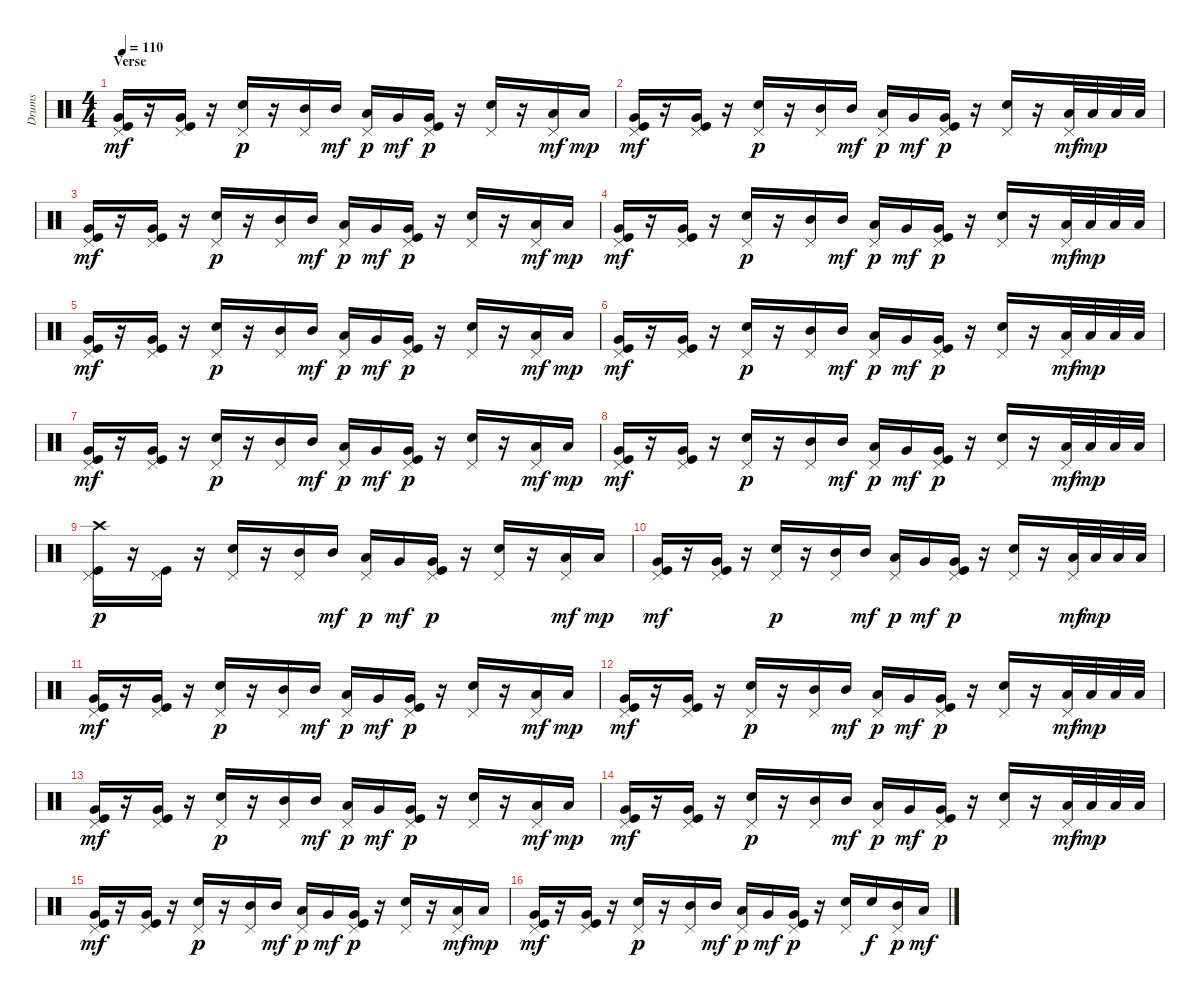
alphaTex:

\track ("Drums" "Drums") {instrument percussion}
\staff {score}
\articulation defaults
\ts (4 4)
\section ("" "Verse")
\tempo 110
\clef neutral
\ks c
("Pedal Hi-Hat (hit)" "Very Low Tom (hit)" "Kick (hit)").16{dy mf} r.16 ("Pedal Hi-Hat (hit)" "Very Low Tom (hit)" "Kick (hit)").16 r.16 ("Pedal Hi-Hat (hit)" "Snare (hit) 2").16{dy p} r.16 ("Pedal Hi-Hat (hit)" "Mid Tom (hit)").16 "Mid Tom (hit)".16{dy mf} ("Pedal Hi-Hat (hit)" "Low Tom (hit)").16{dy p} "Very Low Tom (hit)".16{dy mf} ("Pedal Hi-Hat (hit)" "Very Low Tom (hit)" "Kick (hit)").16{dy p} r.16 ("Pedal Hi-Hat (hit)" "Snare (hit) 2").16 r.16 ("Pedal Hi-Hat (hit)" "Low Tom (hit)").16{dy mf} "Low Tom (hit)".16{dy mp} |
("Pedal Hi-Hat (hit)" "Very Low Tom (hit)" "Kick (hit)").16{dy mf} r.16 ("Pedal Hi-Hat (hit)" "Very Low Tom (hit)" "Kick (hit)").16 r.16 ("Pedal Hi-Hat (hit)" "Snare (hit) 2").16{dy p} r.16 ("Pedal Hi-Hat (hit)" "Mid Tom (hit)").16 "Mid Tom (hit)".16{dy mf} ("Pedal Hi-Hat (hit)" "Low Tom (hit)").16{dy p} "Very Low Tom (hit)".16{dy mf} ("Pedal Hi-Hat (hit)" "Very Low Tom (hit)" "Kick (hit)").16{dy p} r.16 ("Pedal Hi-Hat (hit)" "Snare (hit) 2").16 r.16 ("Pedal Hi-Hat (hit)" "Low Tom (hit)").32{dy mf} "Low Tom (hit)".32{dy mp} "Low Tom (hit)".32 "Low Tom (hit)".32 |
("Pedal Hi-Hat (hit)" "Very Low Tom (hit)" "Kick (hit)").16{dy mf} r.16 ("Pedal Hi-Hat (hit)" "Very Low Tom (hit)" "Kick (hit)").16 r.16 ("Pedal Hi-Hat (hit)" "Snare (hit) 2").16{dy p} r.16 ("Pedal Hi-Hat (hit)" "Mid Tom (hit)").16 "Mid Tom (hit)".16{dy mf} ("Pedal Hi-Hat (hit)" "Low Tom (hit)").16{dy p} "Very Low Tom (hit)".16{dy mf} ("Pedal Hi-Hat (hit)" "Very Low Tom (hit)" "Kick (hit)").16{dy p} r.16 ("Pedal Hi-Hat (hit)" "Snare (hit) 2").16 r.16 ("Pedal Hi-Hat (hit)" "Low Tom (hit)").16{dy mf} "Low Tom (hit)".16{dy mp} |
("Pedal Hi-Hat (hit)" "Very Low Tom (hit)" "Kick (hit)").16{dy mf} r.16 ("Pedal Hi-Hat (hit)" "Very Low Tom (hit)" "Kick (hit)").16 r.16 ("Pedal Hi-Hat (hit)" "Snare (hit) 2").16{dy p} r.16 ("Pedal Hi-Hat (hit)" "Mid Tom (hit)").16 "Mid Tom (hit)".16{dy mf} ("Pedal Hi-Hat (hit)" "Low Tom (hit)").16{dy p} "Very Low Tom (hit)".16{dy mf} ("Pedal Hi-Hat (hit)" "Very Low Tom (hit)" "Kick (hit)").16{dy p} r.16 ("Pedal Hi-Hat (hit)" "Snare (hit) 2").16 r.16 ("Pedal Hi-Hat (hit)" "Low Tom (hit)").32{dy mf} "Low Tom (hit)".32{dy mp} "Low Tom (hit)".32 "Low Tom (hit)".32 |
("Pedal Hi-Hat (hit)" "Very Low Tom (hit)" "Kick (hit)").16{dy mf} r.16 ("Pedal Hi-Hat (hit)" "Very Low Tom (hit)" "Kick (hit)").16 r.16 ("Pedal Hi-Hat (hit)" "Snare (hit) 2").16{dy p} r.16 ("Pedal Hi-Hat (hit)" "Mid Tom (hit)").16 "Mid Tom (hit)".16{dy mf} ("Pedal Hi-Hat (hit)" "Low Tom (hit)").16{dy p} "Very Low Tom (hit)".16{dy mf} ("Pedal Hi-Hat (hit)" "Very Low Tom (hit)" "Kick (hit)").16{dy p} r.16 ("Pedal Hi-Hat (hit)" "Snare (hit) 2").16 r.16 ("Pedal Hi-Hat (hit)" "Low Tom (hit)").16{dy mf} "Low Tom (hit)".16{dy mp} |
("Pedal Hi-Hat (hit)" "Very Low Tom (hit)" "Kick (hit)").16{dy mf} r.16 ("Pedal Hi-Hat (hit)" "Very Low Tom (hit)" "Kick (hit)").16 r.16 ("Pedal Hi-Hat (hit)" "Snare (hit) 2").16{dy p} r.16 ("Pedal Hi-Hat (hit)" "Mid Tom (hit)").16 "Mid Tom (hit)".16{dy mf} ("Pedal Hi-Hat (hit)" "Low Tom (hit)").16{dy p} "Very Low Tom (hit)".16{dy mf} ("Pedal Hi-Hat (hit)" "Very Low Tom (hit)" "Kick (hit)").16{dy p} r.16 ("Pedal Hi-Hat (hit)" "Snare (hit) 2").16 r.16 ("Pedal Hi-Hat (hit)" "Low Tom (hit)").32{dy mf} "Low Tom (hit)".32{dy mp} "Low Tom (hit)".32 "Low Tom (hit)".32 |
("Pedal Hi-Hat (hit)" "Very Low Tom (hit)" "Kick (hit)").16{dy mf} r.16 ("Pedal Hi-Hat (hit)" "Very Low Tom (hit)" "Kick (hit)").16 r.16 ("Pedal Hi-Hat (hit)" "Snare (hit) 2").16{dy p} r.16 ("Pedal Hi-Hat (hit)" "Mid Tom (hit)").16 "Mid Tom (hit)".16{dy mf} ("Pedal Hi-Hat (hit)" "Low Tom (hit)").16{dy p} "Very Low Tom (hit)".16{dy mf} ("Pedal Hi-Hat (hit)" "Very Low Tom (hit)" "Kick (hit)").16{dy p} r.16 ("Pedal Hi-Hat (hit)" "Snare (hit) 2").16 r.16 ("Pedal Hi-Hat (hit)" "Low Tom (hit)").16{dy mf} "Low Tom (hit)".16{dy mp} |
("Pedal Hi-Hat (hit)" "Very Low Tom (hit)" "Kick (hit)").16{dy mf} r.16 ("Pedal Hi-Hat (hit)" "Very Low Tom (hit)" "Kick (hit)").16 r.16 ("Pedal Hi-Hat (hit)" "Snare (hit) 2").16{dy p} r.16 ("Pedal Hi-Hat (hit)" "Mid Tom (hit)").16 "Mid Tom (hit)".16{dy mf} ("Pedal Hi-Hat (hit)" "Low Tom (hit)").16{dy p} "Very Low Tom (hit)".16{dy mf} ("Pedal Hi-Hat (hit)" "Very Low Tom (hit)" "Kick (hit)").16{dy p} r.16 ("Pedal Hi-Hat (hit)" "Snare (hit) 2").16 r.16 ("Pedal Hi-Hat (hit)" "Low Tom (hit)").32{dy mf} "Low Tom (hit)".32{dy mp} "Low Tom (hit)".32 "Low Tom (hit)".32 |
("Crash high (hit)" "Pedal Hi-Hat (hit)" "Kick (hit)").16{dy p} r.16 ("Pedal Hi-Hat (hit)" "Kick (hit)").16 r.16 ("Pedal Hi-Hat (hit)" "Snare (hit) 2").16 r.16 ("Pedal Hi-Hat (hit)" "Mid Tom (hit)").16 "Mid Tom (hit)".16{dy mf} ("Pedal Hi-Hat (hit)" "Low Tom (hit)").16{dy p} "Very Low Tom (hit)".16{dy mf} ("Pedal Hi-Hat (hit)" "Very Low Tom (hit)" "Kick (hit)").16{dy p} r.16 ("Pedal Hi-Hat (hit)" "Snare (hit) 2").16 r.16 ("Pedal Hi-Hat (hit)" "Low Tom (hit)").16{dy mf} "Low Tom (hit)".16{dy mp} |
("Pedal Hi-Hat (hit)" "Very Low Tom (hit)" "Kick (hit)").16{dy mf} r.16 ("Pedal Hi-Hat (hit)" "Very Low Tom (hit)" "Kick (hit)").16 r.16 ("Pedal Hi-Hat (hit)" "Snare (hit) 2").16{dy p} r.16 ("Pedal Hi-Hat (hit)" "Mid Tom (hit)").16 "Mid Tom (hit)".16{dy mf} ("Pedal Hi-Hat (hit)" "Low Tom (hit)").16{dy p} "Very Low Tom (hit)".16{dy mf} ("Pedal Hi-Hat (hit)" "Very Low Tom (hit)" "Kick (hit)").16{dy p} r.16 ("Pedal Hi-Hat (hit)" "Snare (hit) 2").16 r.16 ("Pedal Hi-Hat (hit)" "Low Tom (hit)").32{dy mf} "Low Tom (hit)".32{dy mp} "Low Tom (hit)".32 "Low Tom (hit)".32 |
("Pedal Hi-Hat (hit)" "Very Low Tom (hit)" "Kick (hit)").16{dy mf} r.16 ("Pedal Hi-Hat (hit)" "Very Low Tom (hit)" "Kick (hit)").16 r.16 ("Pedal Hi-Hat (hit)" "Snare (hit) 2").16{dy p} r.16 ("Pedal Hi-Hat (hit)" "Mid Tom (hit)").16 "Mid Tom (hit)".16{dy mf} ("Pedal Hi-Hat (hit)" "Low Tom (hit)").16{dy p} "Very Low Tom (hit)".16{dy mf} ("Pedal Hi-Hat (hit)" "Very Low Tom (hit)" "Kick (hit)").16{dy p} r.16 ("Pedal Hi-Hat (hit)" "Snare (hit) 2").16 r.16 ("Pedal Hi-Hat (hit)" "Low Tom (hit)").16{dy mf} "Low Tom (hit)".16{dy mp} |
("Pedal Hi-Hat (hit)" "Very Low Tom (hit)" "Kick (hit)").16{dy mf} r.16 ("Pedal Hi-Hat (hit)" "Very Low Tom (hit)" "Kick (hit)").16 r.16 ("Pedal Hi-Hat (hit)" "Snare (hit) 2").16{dy p} r.16 ("Pedal Hi-Hat (hit)" "Mid Tom (hit)").16 "Mid Tom (hit)".16{dy mf} ("Pedal Hi-Hat (hit)" "Low Tom (hit)").16{dy p} "Very Low Tom (hit)".16{dy mf} ("Pedal Hi-Hat (hit)" "Very Low Tom (hit)" "Kick (hit)").16{dy p} r.16 ("Pedal Hi-Hat (hit)" "Snare (hit) 2").16 r.16 ("Pedal Hi-Hat (hit)" "Low Tom (hit)").32{dy mf} "Low Tom (hit)".32{dy mp} "Low Tom (hit)".32 "Low Tom (hit)".32 |
("Pedal Hi-Hat (hit)" "Very Low Tom (hit)" "Kick (hit)").16{dy mf} r.16 ("Pedal Hi-Hat (hit)" "Very Low Tom (hit)" "Kick (hit)").16 r.16 ("Pedal Hi-Hat (hit)" "Snare (hit) 2").16{dy p} r.16 ("Pedal Hi-Hat (hit)" "Mid Tom (hit)").16 "Mid Tom (hit)".16{dy mf} ("Pedal Hi-Hat (hit)" "Low Tom (hit)").16{dy p} "Very Low Tom (hit)".16{dy mf} ("Pedal Hi-Hat (hit)" "Very Low Tom (hit)" "Kick (hit)").16{dy p} r.16 ("Pedal Hi-Hat (hit)" "Snare (hit) 2").16 r.16 ("Pedal Hi-Hat (hit)" "Low Tom (hit)").16{dy mf} "Low Tom (hit)".16{dy mp} |
("Pedal Hi-Hat (hit)" "Very Low Tom (hit)" "Kick (hit)").16{dy mf} r.16 ("Pedal Hi-Hat (hit)" "Very Low Tom (hit)" "Kick (hit)").16 r.16 ("Pedal Hi-Hat (hit)" "Snare (hit) 2").16{dy p} r.16 ("Pedal Hi-Hat (hit)" "Mid Tom (hit)").16 "Mid Tom (hit)".16{dy mf} ("Pedal Hi-Hat (hit)" "Low Tom (hit)").16{dy p} "Very Low Tom (hit)".16{dy mf} ("Pedal Hi-Hat (hit)" "Very Low Tom (hit)" "Kick (hit)").16{dy p} r.16 ("Pedal Hi-Hat (hit)" "Snare (hit) 2").16 r.16 ("Pedal Hi-Hat (hit)" "Low Tom (hit)").32{dy mf} "Low Tom (hit)".32{dy mp} "Low Tom (hit)".32 "Low Tom (hit)".32 |
("Pedal Hi-Hat (hit)" "Very Low Tom (hit)" "Kick (hit)").16{dy mf} r.16 ("Pedal Hi-Hat (hit)" "Very Low Tom (hit)" "Kick (hit)").16 r.16 ("Pedal Hi-Hat (hit)" "Snare (hit) 2").16{dy p} r.16 ("Pedal Hi-Hat (hit)" "Mid Tom (hit)").16 "Mid Tom (hit)".16{dy mf} ("Pedal Hi-Hat (hit)" "Low Tom (hit)").16{dy p} "Very Low Tom (hit)".16{dy mf} ("Pedal Hi-Hat (hit)" "Very Low Tom (hit)" "Kick (hit)").16{dy p} r.16 ("Pedal Hi-Hat (hit)" "Snare (hit) 2").16 r.16 ("Pedal Hi-Hat (hit)" "Low Tom (hit)").16{dy mf} "Low Tom (hit)".16{dy mp} |
("Pedal Hi-Hat (hit)" "Very Low Tom (hit)" "Kick (hit)").16{dy mf} r.16 ("Pedal Hi-Hat (hit)" "Very Low Tom (hit)" "Kick (hit)").16 r.16 ("Pedal Hi-Hat (hit)" "Snare (hit) 2").16{dy p} r.16 ("Pedal Hi-Hat (hit)" "Mid Tom (hit)").16 "Mid Tom (hit)".16{dy mf} ("Pedal Hi-Hat (hit)" "Low Tom (hit)").16{dy p} "Very Low Tom (hit)".16{dy mf} ("Pedal Hi-Hat (hit)" "Very Low Tom (hit)" "Kick (hit)").16{dy p} r.16 ("Pedal Hi-Hat (hit)" "Snare (hit) 2").16 "Snare (hit) 2".16{dy f} ("Pedal Hi-Hat (hit)" "Mid Tom (hit)").16{dy p} "Low Tom (hit)".16{dy mf}
